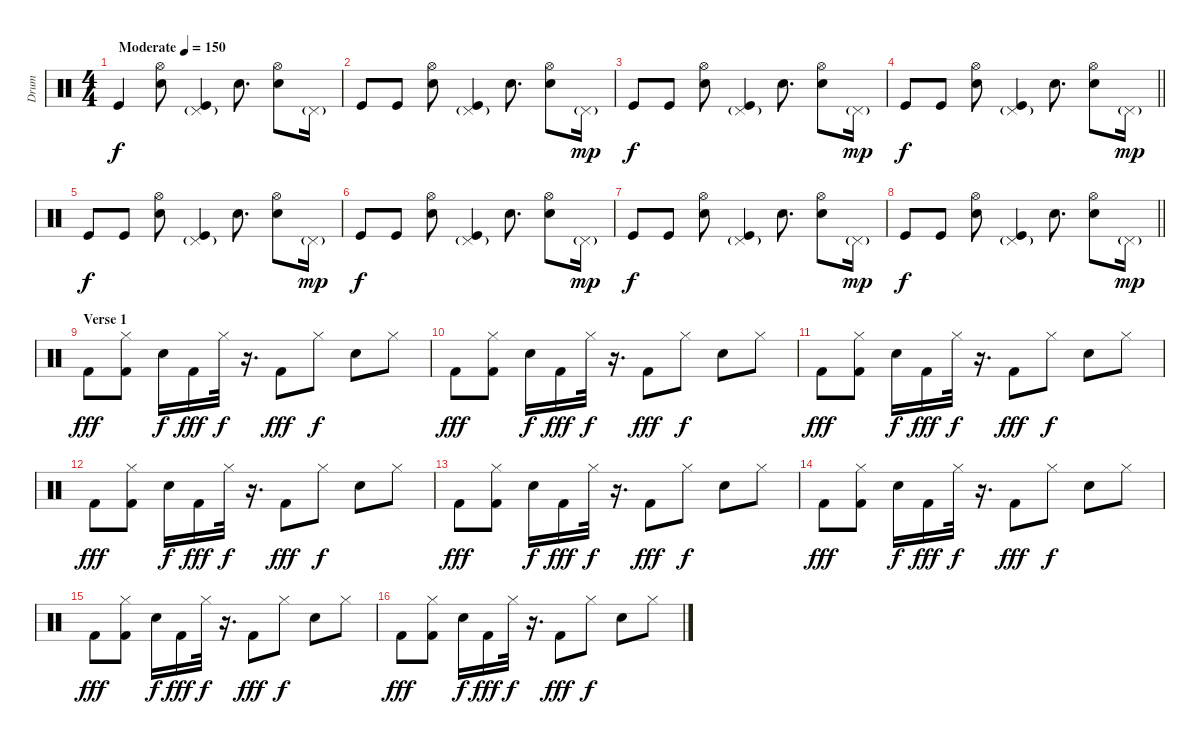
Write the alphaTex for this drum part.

\track ("Drum" "Drum") {instrument percussion}
\staff {score}
\articulation defaults
\ts (4 4)
\tempo (150 "Moderate")
\clef neutral
\ks c "Kick (hit)".4{dy f}
("Hi-Hat (open)" "Hand Clap (hit)").8 ("Pedal Hi-Hat (hit)"{g} "Kick (hit)").4 "Hand Clap (hit)".8{d} ("Hi-Hat (open)" "Hand Clap (hit)").8 "Pedal Hi-Hat (hit)"{g}.16 |
"Kick (hit)".8 "Kick (hit)".8 ("Hi-Hat (open)" "Hand Clap (hit)").8 ("Pedal Hi-Hat (hit)"{g} "Kick (hit)").4 "Hand Clap (hit)".8{d} ("Hi-Hat (open)" "Hand Clap (hit)").8 "Pedal Hi-Hat (hit)"{g}.16{dy mp} |
"Kick (hit)".8{dy f} "Kick (hit)".8 ("Hi-Hat (open)" "Hand Clap (hit)").8 ("Pedal Hi-Hat (hit)"{g} "Kick (hit)").4 "Hand Clap (hit)".8{d} ("Hi-Hat (open)" "Hand Clap (hit)").8 "Pedal Hi-Hat (hit)"{g}.16{dy mp} |
\barLineRight lightlight "Kick (hit)".8{dy f} "Kick (hit)".8
("Hi-Hat (open)" "Hand Clap (hit)").8 ("Pedal Hi-Hat (hit)"{g} "Kick (hit)").4 "Hand Clap (hit)".8{d} ("Hi-Hat (open)" "Hand Clap (hit)").8 "Pedal Hi-Hat (hit)"{g}.16{dy mp} |
\section ("" "")
"Kick (hit)".8{dy f} "Kick (hit)".8 ("Hi-Hat (open)" "Hand Clap (hit)").8 ("Pedal Hi-Hat (hit)"{g} "Kick (hit)").4 "Hand Clap (hit)".8{d} ("Hi-Hat (open)" "Hand Clap (hit)").8 "Pedal Hi-Hat (hit)"{g}.16{dy mp} |
"Kick (hit)".8{dy f} "Kick (hit)".8 ("Hi-Hat (open)" "Hand Clap (hit)").8 ("Pedal Hi-Hat (hit)"{g} "Kick (hit)").4 "Hand Clap (hit)".8{d} ("Hi-Hat (open)" "Hand Clap (hit)").8 "Pedal Hi-Hat (hit)"{g}.16{dy mp} |
"Kick (hit)".8{dy f} "Kick (hit)".8 ("Hi-Hat (open)" "Hand Clap (hit)").8 ("Pedal Hi-Hat (hit)"{g} "Kick (hit)").4 "Hand Clap (hit)".8{d} ("Hi-Hat (open)" "Hand Clap (hit)").8 "Pedal Hi-Hat (hit)"{g}.16{dy mp} |
\barLineRight lightlight "Kick (hit)".8{dy f} "Kick (hit)".8
("Hi-Hat (open)" "Hand Clap (hit)").8 ("Pedal Hi-Hat (hit)"{g} "Kick (hit)").4 "Hand Clap (hit)".8{d} ("Hi-Hat (open)" "Hand Clap (hit)").8 "Pedal Hi-Hat (hit)"{g}.16{dy mp} |
\section ("" "Verse 1")
"Kick (hit) 2".8{dy fff} ("Hi-Hat (closed)" "Kick (hit) 2").8 "Electric Snare (hit)".16{dy f} "Kick (hit) 2".16{dy fff} "Hi-Hat (closed)".32{dy f} r.16{d} "Kick (hit) 2".8{dy fff} "Hi-Hat (closed)".8{dy f} "Electric Snare (hit)".8 "Hi-Hat (closed)".8 |
"Kick (hit) 2".8{dy fff} ("Hi-Hat (closed)" "Kick (hit) 2").8 "Electric Snare (hit)".16{dy f} "Kick (hit) 2".16{dy fff} "Hi-Hat (closed)".32{dy f} r.16{d} "Kick (hit) 2".8{dy fff} "Hi-Hat (closed)".8{dy f} "Electric Snare (hit)".8 "Hi-Hat (closed)".8 |
"Kick (hit) 2".8{dy fff} ("Hi-Hat (closed)" "Kick (hit) 2").8 "Electric Snare (hit)".16{dy f} "Kick (hit) 2".16{dy fff} "Hi-Hat (closed)".32{dy f} r.16{d} "Kick (hit) 2".8{dy fff} "Hi-Hat (closed)".8{dy f} "Electric Snare (hit)".8 "Hi-Hat (closed)".8 |
"Kick (hit) 2".8{dy fff} ("Hi-Hat (closed)" "Kick (hit) 2").8 "Electric Snare (hit)".16{dy f} "Kick (hit) 2".16{dy fff} "Hi-Hat (closed)".32{dy f} r.16{d} "Kick (hit) 2".8{dy fff} "Hi-Hat (closed)".8{dy f} "Electric Snare (hit)".8 "Hi-Hat (closed)".8 |
"Kick (hit) 2".8{dy fff} ("Hi-Hat (closed)" "Kick (hit) 2").8 "Electric Snare (hit)".16{dy f} "Kick (hit) 2".16{dy fff} "Hi-Hat (closed)".32{dy f} r.16{d} "Kick (hit) 2".8{dy fff} "Hi-Hat (closed)".8{dy f} "Electric Snare (hit)".8 "Hi-Hat (closed)".8 |
"Kick (hit) 2".8{dy fff} ("Hi-Hat (closed)" "Kick (hit) 2").8 "Electric Snare (hit)".16{dy f} "Kick (hit) 2".16{dy fff} "Hi-Hat (closed)".32{dy f} r.16{d} "Kick (hit) 2".8{dy fff} "Hi-Hat (closed)".8{dy f} "Electric Snare (hit)".8 "Hi-Hat (closed)".8 |
"Kick (hit) 2".8{dy fff} ("Hi-Hat (closed)" "Kick (hit) 2").8 "Electric Snare (hit)".16{dy f} "Kick (hit) 2".16{dy fff} "Hi-Hat (closed)".32{dy f} r.16{d} "Kick (hit) 2".8{dy fff} "Hi-Hat (closed)".8{dy f} "Electric Snare (hit)".8 "Hi-Hat (closed)".8 |
"Kick (hit) 2".8{dy fff} ("Hi-Hat (closed)" "Kick (hit) 2").8 "Electric Snare (hit)".16{dy f} "Kick (hit) 2".16{dy fff} "Hi-Hat (closed)".32{dy f} r.16{d} "Kick (hit) 2".8{dy fff} "Hi-Hat (closed)".8{dy f} "Electric Snare (hit)".8 "Hi-Hat (closed)".8
